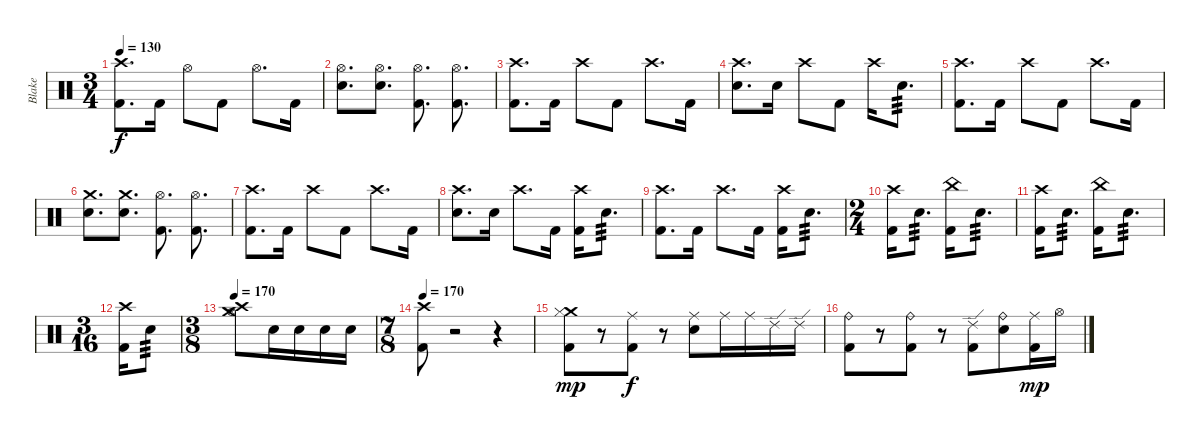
\track ("Blake" "Blake") {instrument percussion}
\staff {score}
\articulation defaults
\ts (3 4)
\tempo 130
\clef neutral
\ks c
("Crash high (hit)" "Kick (hit) 2").8{d dy f} "Kick (hit) 2".16 "Hi-Hat (open)".8 "Kick (hit) 2".8 "Hi-Hat (open)".8{d} "Kick (hit) 2".16 |
("Hi-Hat (open)" "Snare (hit) 2").8{d} ("Hi-Hat (open)" "Snare (hit) 2").8{d} ("Hi-Hat (open)" "Kick (hit) 2").8{d} ("Hi-Hat (open)" "Kick (hit) 2").8{d} |
("Crash high (hit)" "Kick (hit) 2").8{d} "Kick (hit) 2".16 "Crash high (hit)".8 "Kick (hit) 2".8 "Crash high (hit)".8{d} "Kick (hit) 2".16 |
("Crash high (hit)" "Snare (hit) 2").8{d} "Snare (hit) 2".16 "Crash high (hit)".8 "Kick (hit) 2".8 "Crash high (hit)".16 "Snare (hit) 2".8{d tp 3} |
("Crash high (hit)" "Kick (hit) 2").8{d} "Kick (hit) 2".16 "Crash high (hit)".8 "Kick (hit) 2".8 "Crash high (hit)".8{d} "Kick (hit) 2".16 |
("Crash medium (hit)" "Snare (hit) 2").8{d} ("Crash medium (hit)" "Snare (hit) 2").8{d} ("Hi-Hat (open)" "Kick (hit) 2").8{d} ("Hi-Hat (open)" "Kick (hit) 2").8{d} |
("Crash high (hit)" "Kick (hit) 2").8{d} "Kick (hit) 2".16 "Crash high (hit)".8 "Kick (hit) 2".8 "Crash high (hit)".8{d} "Kick (hit) 2".16 |
("Crash high (hit)" "Snare (hit) 2").8{d} "Snare (hit) 2".16 "Crash high (hit)".8{d} "Kick (hit) 2".16 ("Crash high (hit)" "Kick (hit) 2").16 "Snare (hit) 2".8{d tp 3} |
("Crash high (hit)" "Kick (hit) 2").8{d} "Kick (hit) 2".16 "Crash high (hit)".8{d} "Kick (hit) 2".16 ("Crash high (hit)" "Kick (hit) 2").16 "Snare (hit) 2".8{d tp 3} |
\ts (2 4)
("Crash high (hit)" "Kick (hit) 2").16 "Snare (hit) 2".8{d tp 3} ("China (hit)" "Kick (hit) 2").16 "Snare (hit) 2".8{d tp 3} |
("Crash high (hit)" "Kick (hit) 2").16 "Snare (hit) 2".8{d tp 3} ("China (hit)" "Kick (hit) 2").16 "Snare (hit) 2".8{d tp 3} |
\ts (3 16)
("Crash high (hit)" "Kick (hit) 2").16 "Snare (hit) 2".8{tp 3} |
\ts (3 8)
\tempo 170
("Crash medium (hit)" "Crash high (hit)" "Hi-Hat (open)").8 "Snare (hit) 2".16 "Snare (hit) 2".16 "Snare (hit) 2".16 "Snare (hit) 2".16 |
\ts (7 8)
\tempo 170
("Crash high (hit)" "Kick (hit) 2").8 r.2 r.4 |
("Crash medium (hit)" "Hi-Hat (closed)" "Kick (hit) 2").8{dy mp} r.8 ("Ride (middle)" "Kick (hit) 2").8{dy f} r.8 ("Ride (middle)" "Snare (hit) 2").8 "Ride (middle)".16 "Ride (middle)".16 "Ride (edge) 2".16 "Ride (edge) 2".16 |
("Ride (bell)" "Kick (hit) 2").8 r.8 ("Ride (bell)" "Kick (hit) 2").8 r.8 ("Ride (edge) 2" "Kick (hit) 2").8 ("Ride (bell)" "Snare (hit) 2").8 ("Ride (middle)" "Kick (hit) 2").16{dy mp} "Hi-Hat (open)".16
